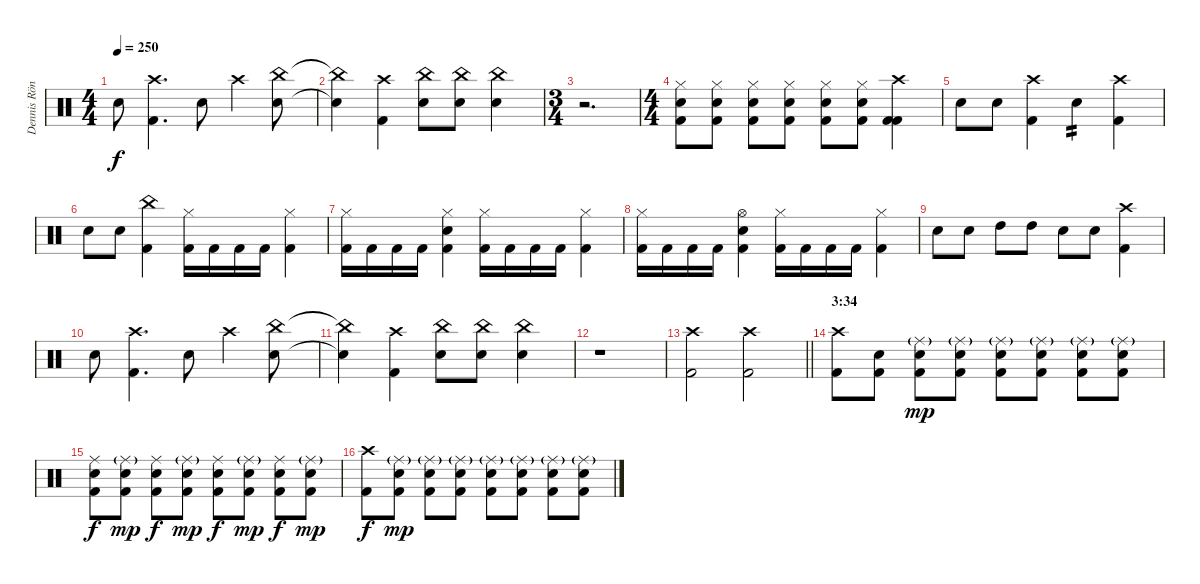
\track ("Dennis Röndum" "Dennis Rön") {instrument percussion}
\staff {score}
\articulation defaults
\ts (4 4)
\tempo 250
\clef neutral
\ks c "Snare (hit) 2".8{dy f}
("Crash high (hit)" "Kick (hit) 2").4{d} "Snare (hit) 2".8 "Crash high (hit)".4 ("China (hit)" "Snare (hit) 2").8 |
("China (hit)"{t} "Snare (hit) 2"{t}).4 ("Crash high (hit)" "Kick (hit) 2").4 ("China (hit)" "Snare (hit) 2").8 ("Snare (hit) 2" "China (hit)").8 ("China (hit)" "Snare (hit) 2").4 |
\ts (3 4)
r.2{d} |
\ts (4 4)
("Hi-Hat (closed)" "Snare (hit) 2" "Kick (hit) 2").8 ("Hi-Hat (closed)" "Snare (hit) 2" "Kick (hit) 2").8 ("Hi-Hat (closed)" "Snare (hit) 2" "Kick (hit) 2").8 ("Hi-Hat (closed)" "Snare (hit) 2" "Kick (hit) 2").8 ("Hi-Hat (closed)" "Snare (hit) 2" "Kick (hit) 2").8 ("Hi-Hat (closed)" "Snare (hit) 2" "Kick (hit) 2").8 ("Crash high (hit)" "Kick (hit) 2" "Kick (hit) 2").4 |
"Snare (hit) 2".8 "Snare (hit) 2".8 ("Crash high (hit)" "Kick (hit) 2").4 "Snare (hit) 2".4{tp 2} ("Crash high (hit)" "Kick (hit) 2").4 |
"Snare (hit) 2".8 "Snare (hit) 2".8 ("China (hit)" "Kick (hit) 2").4 ("Hi-Hat (closed)" "Kick (hit) 2").16 "Kick (hit) 2".16 "Kick (hit) 2".16 "Kick (hit) 2".16 ("Hi-Hat (closed)" "Kick (hit) 2").4 |
("Hi-Hat (closed)" "Kick (hit) 2").16 "Kick (hit) 2".16 "Kick (hit) 2".16 "Kick (hit) 2".16 ("Hi-Hat (closed)" "Snare (hit) 2" "Kick (hit) 2").4 ("Hi-Hat (closed)" "Kick (hit) 2").16 "Kick (hit) 2".16 "Kick (hit) 2".16 "Kick (hit) 2".16 ("Hi-Hat (closed)" "Kick (hit) 2").4 |
("Hi-Hat (closed)" "Kick (hit) 2").16 "Kick (hit) 2".16 "Kick (hit) 2".16 "Kick (hit) 2".16 ("Hi-Hat (open)" "Snare (hit) 2" "Kick (hit) 2").4 ("Hi-Hat (closed)" "Kick (hit) 2").16 "Kick (hit) 2".16 "Kick (hit) 2".16 "Kick (hit) 2".16 ("Hi-Hat (closed)" "Kick (hit) 2").4 |
"Snare (hit) 2".8 "Snare (hit) 2".8 "High Tom (hit)".8 "High Tom (hit)".8 "Snare (hit) 2".8 "Snare (hit) 2".8 ("Crash high (hit)" "Kick (hit) 2").4 |
"Snare (hit) 2".8 ("Crash high (hit)" "Kick (hit) 2").4{d} "Snare (hit) 2".8 "Crash high (hit)".4 ("China (hit)" "Snare (hit) 2").8 |
("China (hit)"{t} "Snare (hit) 2"{t}).4 ("Crash high (hit)" "Kick (hit) 2").4 ("China (hit)" "Snare (hit) 2").8 ("Snare (hit) 2" "China (hit)").8 ("China (hit)" "Snare (hit) 2").4 |
r.1 |
\barLineRight lightlight
("Crash high (hit)" "Kick (hit) 2").2 ("Crash high (hit)" "Kick (hit) 2").2 |
\section ("" "3:34")
("Crash high (hit)" "Kick (hit) 2").8 ("Snare (hit) 2" "Kick (hit) 2").8 ("Snare (hit) 2" "Ride (middle)"{g} "Kick (hit) 2").8{dy mp} ("Snare (hit) 2" "Ride (middle)"{g} "Kick (hit) 2").8 ("Snare (hit) 2" "Ride (middle)"{g} "Kick (hit) 2").8 ("Snare (hit) 2" "Ride (middle)"{g} "Kick (hit) 2").8 ("Snare (hit) 2" "Ride (middle)"{g} "Kick (hit) 2").8 ("Snare (hit) 2" "Ride (middle)"{g} "Kick (hit) 2").8 |
("Snare (hit) 2" "Ride (middle)" "Kick (hit) 2").8{dy f} ("Snare (hit) 2" "Ride (middle)"{g} "Kick (hit) 2").8{dy mp} ("Snare (hit) 2" "Ride (middle)" "Kick (hit) 2").8{dy f} ("Snare (hit) 2" "Ride (middle)"{g} "Kick (hit) 2").8{dy mp} ("Snare (hit) 2" "Ride (middle)" "Kick (hit) 2").8{dy f} ("Snare (hit) 2" "Ride (middle)"{g} "Kick (hit) 2").8{dy mp} ("Snare (hit) 2" "Ride (middle)" "Kick (hit) 2").8{dy f} ("Snare (hit) 2" "Ride (middle)"{g} "Kick (hit) 2").8{dy mp} |
("Crash high (hit)" "Kick (hit) 2").8{dy f} ("Snare (hit) 2" "Ride (middle)"{g} "Kick (hit) 2").8{dy mp} ("Snare (hit) 2" "Ride (middle)"{g} "Kick (hit) 2").8 ("Snare (hit) 2" "Ride (middle)"{g} "Kick (hit) 2").8 ("Snare (hit) 2" "Ride (middle)"{g} "Kick (hit) 2").8 ("Snare (hit) 2" "Ride (middle)"{g} "Kick (hit) 2").8 ("Snare (hit) 2" "Ride (middle)"{g} "Kick (hit) 2").8 ("Snare (hit) 2" "Ride (middle)"{g} "Kick (hit) 2").8
